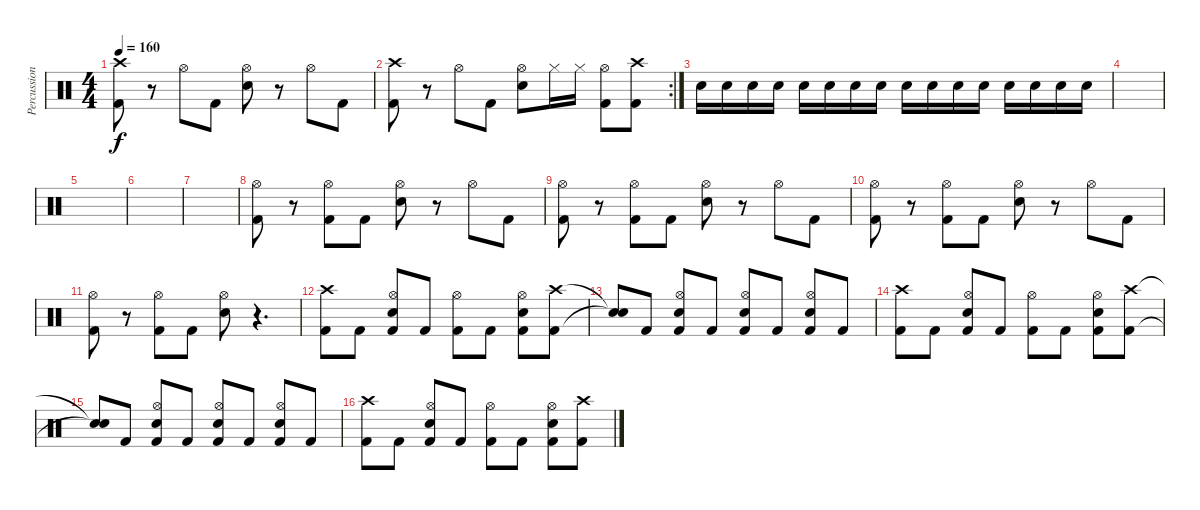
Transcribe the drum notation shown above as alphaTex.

\track ("Percussion" "Percussion") {instrument percussion}
\staff {score}
\articulation defaults
\ts (4 4)
\tempo 160
\clef neutral
\ks c
("Crash high (hit)" "Kick (hit) 2").8{dy f} r.8 "Hi-Hat (open)".8 "Kick (hit) 2".8 ("Hi-Hat (open)" "Electric Snare (hit)").8 r.8 "Hi-Hat (open)".8 "Kick (hit) 2".8 |
\rc 2
("Crash high (hit)" "Kick (hit) 2").8 r.8 "Hi-Hat (open)".8 "Kick (hit) 2".8 ("Hi-Hat (open)" "Electric Snare (hit)").8 "Hi-Hat (closed)".16 "Hi-Hat (closed)".16 ("Hi-Hat (open)" "Kick (hit) 2").8 ("Crash high (hit)" "Kick (hit) 2").8 |
"Electric Snare (hit)".16 "Electric Snare (hit)".16 "Electric Snare (hit)".16 "Electric Snare (hit)".16 "Electric Snare (hit)".16 "Electric Snare (hit)".16 "Electric Snare (hit)".16 "Electric Snare (hit)".16 "Electric Snare (hit)".16 "Electric Snare (hit)".16 "Electric Snare (hit)".16 "Electric Snare (hit)".16 "Electric Snare (hit)".16 "Electric Snare (hit)".16 "Electric Snare (hit)".16 "Electric Snare (hit)".16 |
|
|
|
|
("Hi-Hat (open)" "Kick (hit) 2").8 r.8 ("Hi-Hat (open)" "Kick (hit) 2").8 "Kick (hit) 2".8 ("Hi-Hat (open)" "Electric Snare (hit)").8 r.8 "Hi-Hat (open)".8 "Kick (hit) 2".8 |
("Hi-Hat (open)" "Kick (hit) 2").8 r.8 ("Hi-Hat (open)" "Kick (hit) 2").8 "Kick (hit) 2".8 ("Hi-Hat (open)" "Electric Snare (hit)").8 r.8 "Hi-Hat (open)".8 "Kick (hit) 2".8 |
("Hi-Hat (open)" "Kick (hit) 2").8 r.8 ("Hi-Hat (open)" "Kick (hit) 2").8 "Kick (hit) 2".8 ("Hi-Hat (open)" "Electric Snare (hit)").8 r.8 "Hi-Hat (open)".8 "Kick (hit) 2".8 |
("Hi-Hat (open)" "Kick (hit) 2").8 r.8 ("Hi-Hat (open)" "Kick (hit) 2").8 "Kick (hit) 2".8 ("Hi-Hat (open)" "Electric Snare (hit)").8 r.4{d} |
("Crash high (hit)" "Kick (hit) 2").8 "Kick (hit) 2".8 ("Hi-Hat (open)" "Electric Snare (hit)" "Kick (hit) 2").8 "Kick (hit) 2".8 ("Hi-Hat (open)" "Kick (hit) 2").8 "Kick (hit) 2".8 ("Hi-Hat (open)" "Electric Snare (hit)" "Kick (hit) 2").8 ("Crash high (hit)" "Kick (hit) 2").8 |
("Snare (hit)"{t} "Snare (hit)"{t}).8 "Kick (hit) 2".8 ("Hi-Hat (open)" "Electric Snare (hit)" "Kick (hit) 2").8 "Kick (hit) 2".8 ("Hi-Hat (open)" "Electric Snare (hit)" "Kick (hit) 2").8 "Kick (hit) 2".8 ("Hi-Hat (open)" "Electric Snare (hit)" "Kick (hit) 2").8 "Kick (hit) 2".8 |
("Crash high (hit)" "Kick (hit) 2").8 "Kick (hit) 2".8 ("Hi-Hat (open)" "Electric Snare (hit)" "Kick (hit) 2").8 "Kick (hit) 2".8 ("Hi-Hat (open)" "Kick (hit) 2").8 "Kick (hit) 2".8 ("Hi-Hat (open)" "Electric Snare (hit)" "Kick (hit) 2").8 ("Crash high (hit)" "Kick (hit) 2").8 |
("Snare (hit)"{t} "Snare (hit)"{t}).8 "Kick (hit) 2".8 ("Hi-Hat (open)" "Electric Snare (hit)" "Kick (hit) 2").8 "Kick (hit) 2".8 ("Hi-Hat (open)" "Electric Snare (hit)" "Kick (hit) 2").8 "Kick (hit) 2".8 ("Hi-Hat (open)" "Electric Snare (hit)" "Kick (hit) 2").8 "Kick (hit) 2".8 |
("Crash high (hit)" "Kick (hit) 2").8 "Kick (hit) 2".8 ("Hi-Hat (open)" "Electric Snare (hit)" "Kick (hit) 2").8 "Kick (hit) 2".8 ("Hi-Hat (open)" "Kick (hit) 2").8 "Kick (hit) 2".8 ("Hi-Hat (open)" "Electric Snare (hit)" "Kick (hit) 2").8 ("Crash high (hit)" "Kick (hit) 2").8
